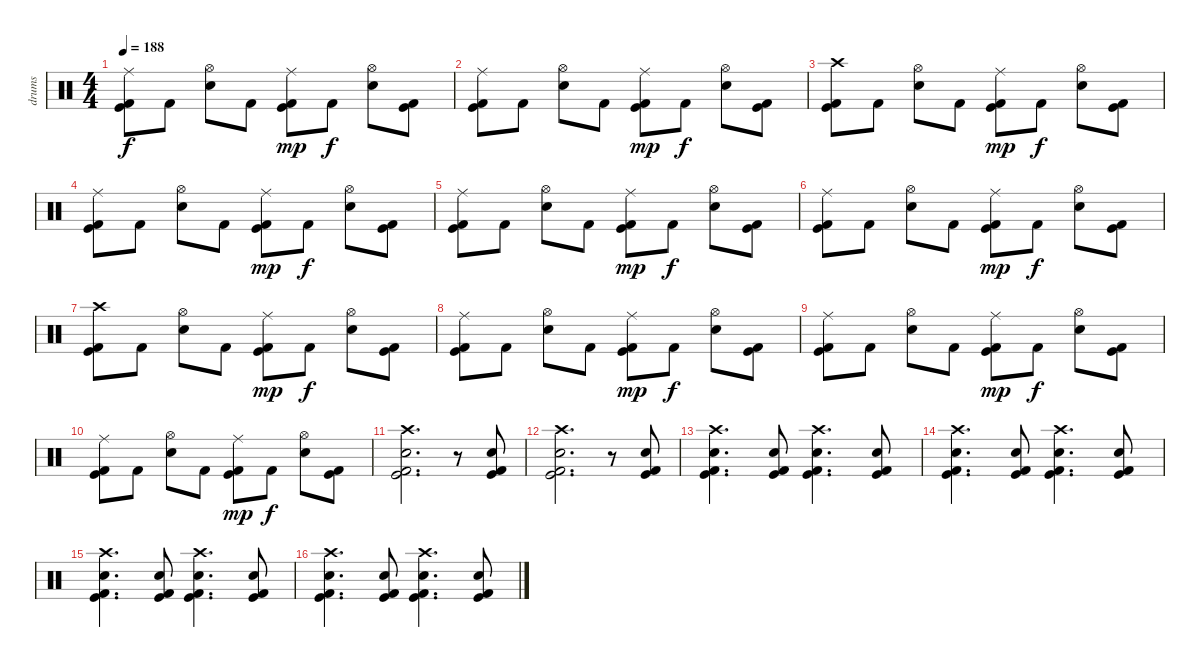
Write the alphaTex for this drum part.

\track ("drums" "drums") {instrument percussion}
\staff {score}
\articulation defaults
\ts (4 4)
\tempo 188
\clef neutral
\ks c
("Ride (middle)" "Kick (hit)" "Kick (hit) 2").8{dy f} "Kick (hit) 2".8 ("Hi-Hat (open)" "Snare (hit) 2").8 "Kick (hit) 2".8 ("Ride (middle)" "Kick (hit)" "Kick (hit) 2").8{dy mp} "Kick (hit) 2".8{dy f} ("Hi-Hat (open)" "Snare (hit) 2").8 ("Kick (hit)" "Kick (hit) 2").8 |
("Ride (middle)" "Kick (hit)" "Kick (hit) 2").8 "Kick (hit) 2".8 ("Hi-Hat (open)" "Snare (hit) 2").8 "Kick (hit) 2".8 ("Ride (middle)" "Kick (hit)" "Kick (hit) 2").8{dy mp} "Kick (hit) 2".8{dy f} ("Hi-Hat (open)" "Snare (hit) 2").8 ("Kick (hit)" "Kick (hit) 2").8 |
("Crash high (hit)" "Kick (hit)" "Kick (hit) 2").8 "Kick (hit) 2".8 ("Hi-Hat (open)" "Snare (hit) 2").8 "Kick (hit) 2".8 ("Ride (middle)" "Kick (hit)" "Kick (hit) 2").8{dy mp} "Kick (hit) 2".8{dy f} ("Hi-Hat (open)" "Snare (hit) 2").8 ("Kick (hit)" "Kick (hit) 2").8 |
("Ride (middle)" "Kick (hit)" "Kick (hit) 2").8 "Kick (hit) 2".8 ("Hi-Hat (open)" "Snare (hit) 2").8 "Kick (hit) 2".8 ("Ride (middle)" "Kick (hit)" "Kick (hit) 2").8{dy mp} "Kick (hit) 2".8{dy f} ("Hi-Hat (open)" "Snare (hit) 2").8 ("Kick (hit)" "Kick (hit) 2").8 |
("Ride (middle)" "Kick (hit)" "Kick (hit) 2").8 "Kick (hit) 2".8 ("Hi-Hat (open)" "Snare (hit) 2").8 "Kick (hit) 2".8 ("Ride (middle)" "Kick (hit)" "Kick (hit) 2").8{dy mp} "Kick (hit) 2".8{dy f} ("Hi-Hat (open)" "Snare (hit) 2").8 ("Kick (hit)" "Kick (hit) 2").8 |
("Ride (middle)" "Kick (hit)" "Kick (hit) 2").8 "Kick (hit) 2".8 ("Hi-Hat (open)" "Snare (hit) 2").8 "Kick (hit) 2".8 ("Ride (middle)" "Kick (hit)" "Kick (hit) 2").8{dy mp} "Kick (hit) 2".8{dy f} ("Hi-Hat (open)" "Snare (hit) 2").8 ("Kick (hit)" "Kick (hit) 2").8 |
("Crash high (hit)" "Kick (hit)" "Kick (hit) 2").8 "Kick (hit) 2".8 ("Hi-Hat (open)" "Snare (hit) 2").8 "Kick (hit) 2".8 ("Ride (middle)" "Kick (hit)" "Kick (hit) 2").8{dy mp} "Kick (hit) 2".8{dy f} ("Hi-Hat (open)" "Snare (hit) 2").8 ("Kick (hit)" "Kick (hit) 2").8 |
("Ride (middle)" "Kick (hit)" "Kick (hit) 2").8 "Kick (hit) 2".8 ("Hi-Hat (open)" "Snare (hit) 2").8 "Kick (hit) 2".8 ("Ride (middle)" "Kick (hit)" "Kick (hit) 2").8{dy mp} "Kick (hit) 2".8{dy f} ("Hi-Hat (open)" "Snare (hit) 2").8 ("Kick (hit)" "Kick (hit) 2").8 |
("Ride (middle)" "Kick (hit)" "Kick (hit) 2").8 "Kick (hit) 2".8 ("Hi-Hat (open)" "Snare (hit) 2").8 "Kick (hit) 2".8 ("Ride (middle)" "Kick (hit)" "Kick (hit) 2").8{dy mp} "Kick (hit) 2".8{dy f} ("Hi-Hat (open)" "Snare (hit) 2").8 ("Kick (hit)" "Kick (hit) 2").8 |
("Ride (middle)" "Kick (hit)" "Kick (hit) 2").8 "Kick (hit) 2".8 ("Hi-Hat (open)" "Snare (hit) 2").8 "Kick (hit) 2".8 ("Ride (middle)" "Kick (hit)" "Kick (hit) 2").8{dy mp} "Kick (hit) 2".8{dy f} ("Hi-Hat (open)" "Snare (hit) 2").8 ("Kick (hit)" "Kick (hit) 2").8 |
("Crash high (hit)" "Snare (hit) 2" "Kick (hit)" "Kick (hit) 2").2{d} r.8 ("Snare (hit) 2" "Kick (hit)" "Kick (hit) 2").8 |
("Crash high (hit)" "Snare (hit) 2" "Kick (hit)" "Kick (hit) 2").2{d} r.8 ("Snare (hit) 2" "Kick (hit)" "Kick (hit) 2").8 |
("Crash high (hit)" "Snare (hit) 2" "Kick (hit)" "Kick (hit) 2").4{d} ("Snare (hit) 2" "Kick (hit)" "Kick (hit) 2").8 ("Crash high (hit)" "Snare (hit) 2" "Kick (hit)" "Kick (hit) 2").4{d} ("Snare (hit) 2" "Kick (hit)" "Kick (hit) 2").8 |
("Crash high (hit)" "Snare (hit) 2" "Kick (hit)" "Kick (hit) 2").4{d} ("Snare (hit) 2" "Kick (hit)" "Kick (hit) 2").8 ("Crash high (hit)" "Snare (hit) 2" "Kick (hit)" "Kick (hit) 2").4{d} ("Snare (hit) 2" "Kick (hit)" "Kick (hit) 2").8 |
("Crash high (hit)" "Snare (hit) 2" "Kick (hit)" "Kick (hit) 2").4{d} ("Snare (hit) 2" "Kick (hit)" "Kick (hit) 2").8 ("Crash high (hit)" "Snare (hit) 2" "Kick (hit)" "Kick (hit) 2").4{d} ("Snare (hit) 2" "Kick (hit)" "Kick (hit) 2").8 |
("Crash high (hit)" "Snare (hit) 2" "Kick (hit)" "Kick (hit) 2").4{d} ("Snare (hit) 2" "Kick (hit)" "Kick (hit) 2").8 ("Crash high (hit)" "Snare (hit) 2" "Kick (hit)" "Kick (hit) 2").4{d} ("Snare (hit) 2" "Kick (hit)" "Kick (hit) 2").8
